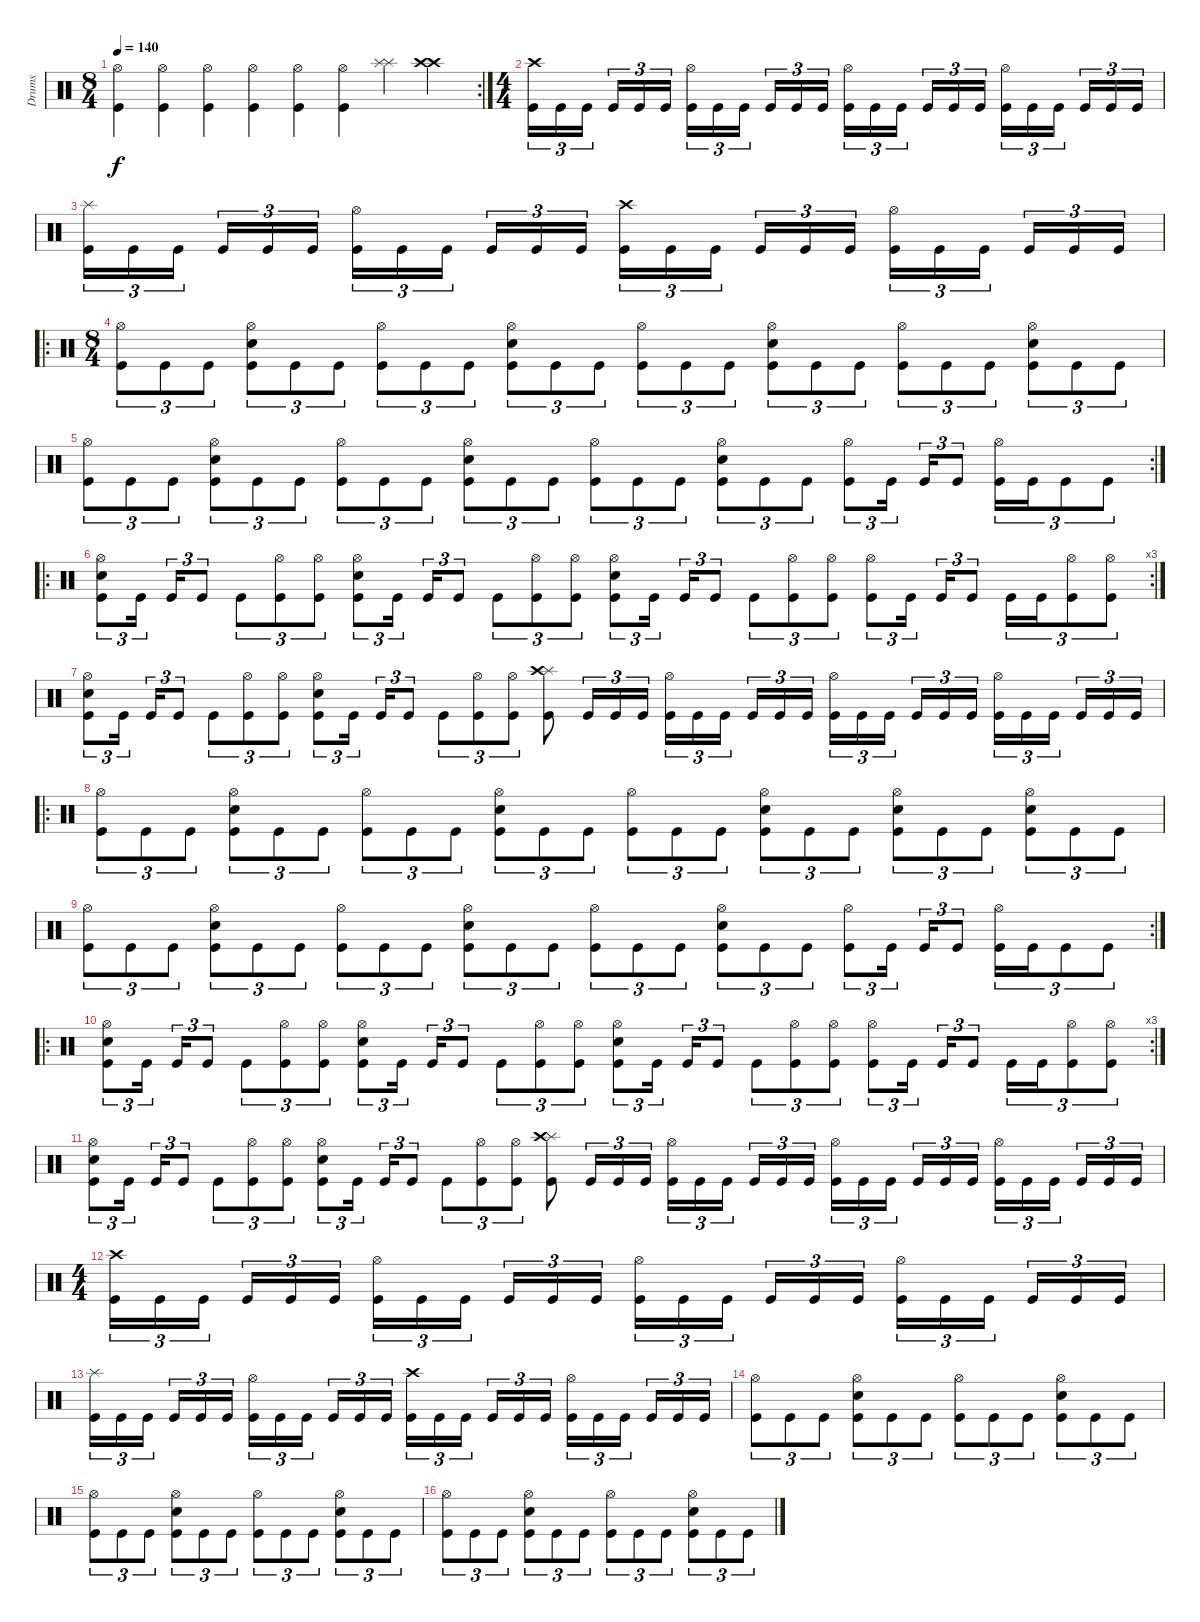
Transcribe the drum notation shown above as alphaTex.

\track ("Drums" "Drums") {instrument percussion}
\staff {score}
\articulation defaults
\rc 2
\ts (8 4)
\tempo 140
\clef neutral
\ks c
("Hi-Hat (open)" "Kick (hit)").4{dy f} ("Hi-Hat (open)" "Kick (hit)").4 ("Hi-Hat (open)" "Kick (hit)").4 ("Hi-Hat (open)" "Kick (hit)").4 ("Hi-Hat (open)" "Kick (hit)").4 ("Hi-Hat (open)" "Kick (hit)").4 ("Splash (hit)" "Splash (hit)").4 ("Crash high (hit)" "Crash high (hit)").4 |
\ts (4 4)
("Crash high (hit)" "Kick (hit)").16{tu (3 2)} "Kick (hit)".16{tu (3 2)} "Kick (hit)".16{tu (3 2)} "Kick (hit)".16{tu (3 2)} "Kick (hit)".16{tu (3 2)} "Kick (hit)".16{tu (3 2)} ("Hi-Hat (open)" "Kick (hit)").16{tu (3 2)} "Kick (hit)".16{tu (3 2)} "Kick (hit)".16{tu (3 2)} "Kick (hit)".16{tu (3 2)} "Kick (hit)".16{tu (3 2)} "Kick (hit)".16{tu (3 2)} ("Hi-Hat (open)" "Kick (hit)").16{tu (3 2)} "Kick (hit)".16{tu (3 2)} "Kick (hit)".16{tu (3 2)} "Kick (hit)".16{tu (3 2)} "Kick (hit)".16{tu (3 2)} "Kick (hit)".16{tu (3 2)} ("Hi-Hat (open)" "Kick (hit)").16{tu (3 2)} "Kick (hit)".16{tu (3 2)} "Kick (hit)".16{tu (3 2)} "Kick (hit)".16{tu (3 2)} "Kick (hit)".16{tu (3 2)} "Kick (hit)".16{tu (3 2)} |
("Splash (hit)" "Kick (hit)").16{tu (3 2)} "Kick (hit)".16{tu (3 2)} "Kick (hit)".16{tu (3 2)} "Kick (hit)".16{tu (3 2)} "Kick (hit)".16{tu (3 2)} "Kick (hit)".16{tu (3 2)} ("Hi-Hat (open)" "Kick (hit)").16{tu (3 2)} "Kick (hit)".16{tu (3 2)} "Kick (hit)".16{tu (3 2)} "Kick (hit)".16{tu (3 2)} "Kick (hit)".16{tu (3 2)} "Kick (hit)".16{tu (3 2)} ("Crash high (hit)" "Kick (hit)").16{tu (3 2)} "Kick (hit)".16{tu (3 2)} "Kick (hit)".16{tu (3 2)} "Kick (hit)".16{tu (3 2)} "Kick (hit)".16{tu (3 2)} "Kick (hit)".16{tu (3 2)} ("Hi-Hat (open)" "Kick (hit)").16{tu (3 2)} "Kick (hit)".16{tu (3 2)} "Kick (hit)".16{tu (3 2)} "Kick (hit)".16{tu (3 2)} "Kick (hit)".16{tu (3 2)} "Kick (hit)".16{tu (3 2)} |
\ro
\ts (8 4)
("Hi-Hat (open)" "Kick (hit)").8{tu (3 2)} "Kick (hit)".8{tu (3 2)} "Kick (hit)".8{tu (3 2)} ("Hi-Hat (open)" "Snare (hit) 2" "Kick (hit)").8{tu (3 2)} "Kick (hit)".8{tu (3 2)} "Kick (hit)".8{tu (3 2)} ("Hi-Hat (open)" "Kick (hit)").8{tu (3 2)} "Kick (hit)".8{tu (3 2)} "Kick (hit)".8{tu (3 2)} ("Hi-Hat (open)" "Snare (hit) 2" "Kick (hit)").8{tu (3 2)} "Kick (hit)".8{tu (3 2)} "Kick (hit)".8{tu (3 2)} ("Hi-Hat (open)" "Kick (hit)").8{tu (3 2)} "Kick (hit)".8{tu (3 2)} "Kick (hit)".8{tu (3 2)} ("Hi-Hat (open)" "Snare (hit) 2" "Kick (hit)").8{tu (3 2)} "Kick (hit)".8{tu (3 2)} "Kick (hit)".8{tu (3 2)} ("Hi-Hat (open)" "Kick (hit)").8{tu (3 2)} "Kick (hit)".8{tu (3 2)} "Kick (hit)".8{tu (3 2)} ("Hi-Hat (open)" "Snare (hit) 2" "Kick (hit)").8{tu (3 2)} "Kick (hit)".8{tu (3 2)} "Kick (hit)".8{tu (3 2)} |
\rc 2
("Hi-Hat (open)" "Kick (hit)").8{tu (3 2)} "Kick (hit)".8{tu (3 2)} "Kick (hit)".8{tu (3 2)} ("Hi-Hat (open)" "Snare (hit) 2" "Kick (hit)").8{tu (3 2)} "Kick (hit)".8{tu (3 2)} "Kick (hit)".8{tu (3 2)} ("Hi-Hat (open)" "Kick (hit)").8{tu (3 2)} "Kick (hit)".8{tu (3 2)} "Kick (hit)".8{tu (3 2)} ("Hi-Hat (open)" "Snare (hit) 2" "Kick (hit)").8{tu (3 2)} "Kick (hit)".8{tu (3 2)} "Kick (hit)".8{tu (3 2)} ("Hi-Hat (open)" "Kick (hit)").8{tu (3 2)} "Kick (hit)".8{tu (3 2)} "Kick (hit)".8{tu (3 2)} ("Hi-Hat (open)" "Snare (hit) 2" "Kick (hit)").8{tu (3 2)} "Kick (hit)".8{tu (3 2)} "Kick (hit)".8{tu (3 2)} ("Hi-Hat (open)" "Kick (hit)").8{tu (3 2)} "Kick (hit)".16{tu (3 2)} "Kick (hit)".16{tu (3 2)} "Kick (hit)".8{tu (3 2)} ("Hi-Hat (open)" "Kick (hit)").16{tu (3 2)} "Kick (hit)".16{tu (3 2)} "Kick (hit)".8{tu (3 2)} "Kick (hit)".8{tu (3 2)} |
\ro
\rc 3
("Hi-Hat (open)" "Snare (hit) 2" "Kick (hit)").8{tu (3 2)} "Kick (hit)".16{tu (3 2)} "Kick (hit)".16{tu (3 2)} "Kick (hit)".8{tu (3 2)} "Kick (hit)".8{tu (3 2)} ("Hi-Hat (open)" "Kick (hit)").8{tu (3 2)} ("Hi-Hat (open)" "Kick (hit)").8{tu (3 2)} ("Hi-Hat (open)" "Snare (hit) 2" "Kick (hit)").8{tu (3 2)} "Kick (hit)".16{tu (3 2)} "Kick (hit)".16{tu (3 2)} "Kick (hit)".8{tu (3 2)} "Kick (hit)".8{tu (3 2)} ("Hi-Hat (open)" "Kick (hit)").8{tu (3 2)} ("Hi-Hat (open)" "Kick (hit)").8{tu (3 2)} ("Hi-Hat (open)" "Snare (hit) 2" "Kick (hit)").8{tu (3 2)} "Kick (hit)".16{tu (3 2)} "Kick (hit)".16{tu (3 2)} "Kick (hit)".8{tu (3 2)} "Kick (hit)".8{tu (3 2)} ("Hi-Hat (open)" "Kick (hit)").8{tu (3 2)} ("Hi-Hat (open)" "Kick (hit)").8{tu (3 2)} ("Hi-Hat (open)" "Kick (hit)").8{tu (3 2)} "Kick (hit)".16{tu (3 2)} "Kick (hit)".16{tu (3 2)} "Kick (hit)".8{tu (3 2)} "Kick (hit)".16{tu (3 2)} "Kick (hit)".16{tu (3 2)} ("Hi-Hat (open)" "Kick (hit)").8{tu (3 2)} ("Hi-Hat (open)" "Kick (hit)").8{tu (3 2)} |
("Hi-Hat (open)" "Snare (hit) 2" "Kick (hit)").8{tu (3 2)} "Kick (hit)".16{tu (3 2)} "Kick (hit)".16{tu (3 2)} "Kick (hit)".8{tu (3 2)} "Kick (hit)".8{tu (3 2)} ("Hi-Hat (open)" "Kick (hit)").8{tu (3 2)} ("Hi-Hat (open)" "Kick (hit)").8{tu (3 2)} ("Hi-Hat (open)" "Snare (hit) 2" "Kick (hit)").8{tu (3 2)} "Kick (hit)".16{tu (3 2)} "Kick (hit)".16{tu (3 2)} "Kick (hit)".8{tu (3 2)} "Kick (hit)".8{tu (3 2)} ("Hi-Hat (open)" "Kick (hit)").8{tu (3 2)} ("Hi-Hat (open)" "Kick (hit)").8{tu (3 2)} ("Splash (hit)" "Crash high (hit)" "Kick (hit)").8 "Kick (hit)".16{tu (3 2)} "Kick (hit)".16{tu (3 2)} "Kick (hit)".16{tu (3 2)} ("Hi-Hat (open)" "Kick (hit)").16{tu (3 2)} "Kick (hit)".16{tu (3 2)} "Kick (hit)".16{tu (3 2)} "Kick (hit)".16{tu (3 2)} "Kick (hit)".16{tu (3 2)} "Kick (hit)".16{tu (3 2)} ("Hi-Hat (open)" "Kick (hit)").16{tu (3 2)} "Kick (hit)".16{tu (3 2)} "Kick (hit)".16{tu (3 2)} "Kick (hit)".16{tu (3 2)} "Kick (hit)".16{tu (3 2)} "Kick (hit)".16{tu (3 2)} ("Hi-Hat (open)" "Kick (hit)").16{tu (3 2)} "Kick (hit)".16{tu (3 2)} "Kick (hit)".16{tu (3 2)} "Kick (hit)".16{tu (3 2)} "Kick (hit)".16{tu (3 2)} "Kick (hit)".16{tu (3 2)} |
\ro
("Hi-Hat (open)" "Kick (hit)").8{tu (3 2)} "Kick (hit)".8{tu (3 2)} "Kick (hit)".8{tu (3 2)} ("Hi-Hat (open)" "Snare (hit) 2" "Kick (hit)").8{tu (3 2)} "Kick (hit)".8{tu (3 2)} "Kick (hit)".8{tu (3 2)} ("Hi-Hat (open)" "Kick (hit)").8{tu (3 2)} "Kick (hit)".8{tu (3 2)} "Kick (hit)".8{tu (3 2)} ("Hi-Hat (open)" "Snare (hit) 2" "Kick (hit)").8{tu (3 2)} "Kick (hit)".8{tu (3 2)} "Kick (hit)".8{tu (3 2)} ("Hi-Hat (open)" "Kick (hit)").8{tu (3 2)} "Kick (hit)".8{tu (3 2)} "Kick (hit)".8{tu (3 2)} ("Hi-Hat (open)" "Snare (hit) 2" "Kick (hit)").8{tu (3 2)} "Kick (hit)".8{tu (3 2)} "Kick (hit)".8{tu (3 2)} ("Hi-Hat (open)" "Snare (hit) 2" "Kick (hit)").8{tu (3 2)} "Kick (hit)".8{tu (3 2)} "Kick (hit)".8{tu (3 2)} ("Hi-Hat (open)" "Snare (hit) 2" "Kick (hit)").8{tu (3 2)} "Kick (hit)".8{tu (3 2)} "Kick (hit)".8{tu (3 2)} |
\rc 2
("Hi-Hat (open)" "Kick (hit)").8{tu (3 2)} "Kick (hit)".8{tu (3 2)} "Kick (hit)".8{tu (3 2)} ("Hi-Hat (open)" "Snare (hit) 2" "Kick (hit)").8{tu (3 2)} "Kick (hit)".8{tu (3 2)} "Kick (hit)".8{tu (3 2)} ("Hi-Hat (open)" "Kick (hit)").8{tu (3 2)} "Kick (hit)".8{tu (3 2)} "Kick (hit)".8{tu (3 2)} ("Hi-Hat (open)" "Snare (hit) 2" "Kick (hit)").8{tu (3 2)} "Kick (hit)".8{tu (3 2)} "Kick (hit)".8{tu (3 2)} ("Hi-Hat (open)" "Kick (hit)").8{tu (3 2)} "Kick (hit)".8{tu (3 2)} "Kick (hit)".8{tu (3 2)} ("Hi-Hat (open)" "Snare (hit) 2" "Kick (hit)").8{tu (3 2)} "Kick (hit)".8{tu (3 2)} "Kick (hit)".8{tu (3 2)} ("Hi-Hat (open)" "Kick (hit)").8{tu (3 2)} "Kick (hit)".16{tu (3 2)} "Kick (hit)".16{tu (3 2)} "Kick (hit)".8{tu (3 2)} ("Hi-Hat (open)" "Kick (hit)").16{tu (3 2)} "Kick (hit)".16{tu (3 2)} "Kick (hit)".8{tu (3 2)} "Kick (hit)".8{tu (3 2)} |
\ro
\rc 3
("Hi-Hat (open)" "Snare (hit) 2" "Kick (hit)").8{tu (3 2)} "Kick (hit)".16{tu (3 2)} "Kick (hit)".16{tu (3 2)} "Kick (hit)".8{tu (3 2)} "Kick (hit)".8{tu (3 2)} ("Hi-Hat (open)" "Kick (hit)").8{tu (3 2)} ("Hi-Hat (open)" "Kick (hit)").8{tu (3 2)} ("Hi-Hat (open)" "Snare (hit) 2" "Kick (hit)").8{tu (3 2)} "Kick (hit)".16{tu (3 2)} "Kick (hit)".16{tu (3 2)} "Kick (hit)".8{tu (3 2)} "Kick (hit)".8{tu (3 2)} ("Hi-Hat (open)" "Kick (hit)").8{tu (3 2)} ("Hi-Hat (open)" "Kick (hit)").8{tu (3 2)} ("Hi-Hat (open)" "Snare (hit) 2" "Kick (hit)").8{tu (3 2)} "Kick (hit)".16{tu (3 2)} "Kick (hit)".16{tu (3 2)} "Kick (hit)".8{tu (3 2)} "Kick (hit)".8{tu (3 2)} ("Hi-Hat (open)" "Kick (hit)").8{tu (3 2)} ("Hi-Hat (open)" "Kick (hit)").8{tu (3 2)} ("Hi-Hat (open)" "Kick (hit)").8{tu (3 2)} "Kick (hit)".16{tu (3 2)} "Kick (hit)".16{tu (3 2)} "Kick (hit)".8{tu (3 2)} "Kick (hit)".16{tu (3 2)} "Kick (hit)".16{tu (3 2)} ("Hi-Hat (open)" "Kick (hit)").8{tu (3 2)} ("Hi-Hat (open)" "Kick (hit)").8{tu (3 2)} |
("Hi-Hat (open)" "Snare (hit) 2" "Kick (hit)").8{tu (3 2)} "Kick (hit)".16{tu (3 2)} "Kick (hit)".16{tu (3 2)} "Kick (hit)".8{tu (3 2)} "Kick (hit)".8{tu (3 2)} ("Hi-Hat (open)" "Kick (hit)").8{tu (3 2)} ("Hi-Hat (open)" "Kick (hit)").8{tu (3 2)} ("Hi-Hat (open)" "Snare (hit) 2" "Kick (hit)").8{tu (3 2)} "Kick (hit)".16{tu (3 2)} "Kick (hit)".16{tu (3 2)} "Kick (hit)".8{tu (3 2)} "Kick (hit)".8{tu (3 2)} ("Hi-Hat (open)" "Kick (hit)").8{tu (3 2)} ("Hi-Hat (open)" "Kick (hit)").8{tu (3 2)} ("Splash (hit)" "Crash high (hit)" "Kick (hit)").8 "Kick (hit)".16{tu (3 2)} "Kick (hit)".16{tu (3 2)} "Kick (hit)".16{tu (3 2)} ("Hi-Hat (open)" "Kick (hit)").16{tu (3 2)} "Kick (hit)".16{tu (3 2)} "Kick (hit)".16{tu (3 2)} "Kick (hit)".16{tu (3 2)} "Kick (hit)".16{tu (3 2)} "Kick (hit)".16{tu (3 2)} ("Hi-Hat (open)" "Kick (hit)").16{tu (3 2)} "Kick (hit)".16{tu (3 2)} "Kick (hit)".16{tu (3 2)} "Kick (hit)".16{tu (3 2)} "Kick (hit)".16{tu (3 2)} "Kick (hit)".16{tu (3 2)} ("Hi-Hat (open)" "Kick (hit)").16{tu (3 2)} "Kick (hit)".16{tu (3 2)} "Kick (hit)".16{tu (3 2)} "Kick (hit)".16{tu (3 2)} "Kick (hit)".16{tu (3 2)} "Kick (hit)".16{tu (3 2)} |
\ts (4 4)
("Crash high (hit)" "Kick (hit)").16{tu (3 2)} "Kick (hit)".16{tu (3 2)} "Kick (hit)".16{tu (3 2)} "Kick (hit)".16{tu (3 2)} "Kick (hit)".16{tu (3 2)} "Kick (hit)".16{tu (3 2)} ("Hi-Hat (open)" "Kick (hit)").16{tu (3 2)} "Kick (hit)".16{tu (3 2)} "Kick (hit)".16{tu (3 2)} "Kick (hit)".16{tu (3 2)} "Kick (hit)".16{tu (3 2)} "Kick (hit)".16{tu (3 2)} ("Hi-Hat (open)" "Kick (hit)").16{tu (3 2)} "Kick (hit)".16{tu (3 2)} "Kick (hit)".16{tu (3 2)} "Kick (hit)".16{tu (3 2)} "Kick (hit)".16{tu (3 2)} "Kick (hit)".16{tu (3 2)} ("Hi-Hat (open)" "Kick (hit)").16{tu (3 2)} "Kick (hit)".16{tu (3 2)} "Kick (hit)".16{tu (3 2)} "Kick (hit)".16{tu (3 2)} "Kick (hit)".16{tu (3 2)} "Kick (hit)".16{tu (3 2)} |
("Splash (hit)" "Kick (hit)").16{tu (3 2)} "Kick (hit)".16{tu (3 2)} "Kick (hit)".16{tu (3 2)} "Kick (hit)".16{tu (3 2)} "Kick (hit)".16{tu (3 2)} "Kick (hit)".16{tu (3 2)} ("Hi-Hat (open)" "Kick (hit)").16{tu (3 2)} "Kick (hit)".16{tu (3 2)} "Kick (hit)".16{tu (3 2)} "Kick (hit)".16{tu (3 2)} "Kick (hit)".16{tu (3 2)} "Kick (hit)".16{tu (3 2)} ("Crash high (hit)" "Kick (hit)").16{tu (3 2)} "Kick (hit)".16{tu (3 2)} "Kick (hit)".16{tu (3 2)} "Kick (hit)".16{tu (3 2)} "Kick (hit)".16{tu (3 2)} "Kick (hit)".16{tu (3 2)} ("Hi-Hat (open)" "Kick (hit)").16{tu (3 2)} "Kick (hit)".16{tu (3 2)} "Kick (hit)".16{tu (3 2)} "Kick (hit)".16{tu (3 2)} "Kick (hit)".16{tu (3 2)} "Kick (hit)".16{tu (3 2)} |
("Hi-Hat (open)" "Kick (hit)").8{tu (3 2)} "Kick (hit)".8{tu (3 2)} "Kick (hit)".8{tu (3 2)} ("Hi-Hat (open)" "Snare (hit) 2" "Kick (hit)").8{tu (3 2)} "Kick (hit)".8{tu (3 2)} "Kick (hit)".8{tu (3 2)} ("Hi-Hat (open)" "Kick (hit)").8{tu (3 2)} "Kick (hit)".8{tu (3 2)} "Kick (hit)".8{tu (3 2)} ("Hi-Hat (open)" "Snare (hit) 2" "Kick (hit)").8{tu (3 2)} "Kick (hit)".8{tu (3 2)} "Kick (hit)".8{tu (3 2)} |
("Hi-Hat (open)" "Kick (hit)").8{tu (3 2)} "Kick (hit)".8{tu (3 2)} "Kick (hit)".8{tu (3 2)} ("Hi-Hat (open)" "Snare (hit) 2" "Kick (hit)").8{tu (3 2)} "Kick (hit)".8{tu (3 2)} "Kick (hit)".8{tu (3 2)} ("Hi-Hat (open)" "Kick (hit)").8{tu (3 2)} "Kick (hit)".8{tu (3 2)} "Kick (hit)".8{tu (3 2)} ("Hi-Hat (open)" "Snare (hit) 2" "Kick (hit)").8{tu (3 2)} "Kick (hit)".8{tu (3 2)} "Kick (hit)".8{tu (3 2)} |
("Hi-Hat (open)" "Kick (hit)").8{tu (3 2)} "Kick (hit)".8{tu (3 2)} "Kick (hit)".8{tu (3 2)} ("Hi-Hat (open)" "Snare (hit) 2" "Kick (hit)").8{tu (3 2)} "Kick (hit)".8{tu (3 2)} "Kick (hit)".8{tu (3 2)} ("Hi-Hat (open)" "Kick (hit)").8{tu (3 2)} "Kick (hit)".8{tu (3 2)} "Kick (hit)".8{tu (3 2)} ("Hi-Hat (open)" "Snare (hit) 2" "Kick (hit)").8{tu (3 2)} "Kick (hit)".8{tu (3 2)} "Kick (hit)".8{tu (3 2)}
